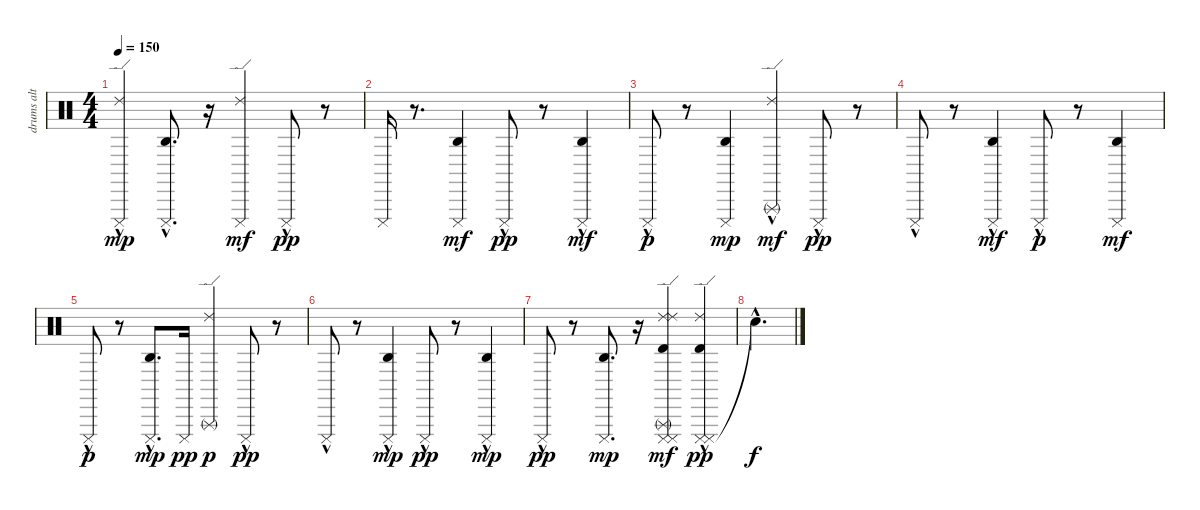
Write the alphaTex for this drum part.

\track ("drums alt" "drums alt") {instrument percussion}
\staff {score}
\articulation defaults
\ts (4 4)
\tempo 150
\clef neutral
\ks c
("Cuica (mute)"{hac} "Ride (edge) 2").4{dy mp} ("Cuica (mute)"{hac} "Agogo high (hit)").8{d} r.16 ("Cuica (mute)" "Ride (edge) 2").4{dy mf} "Cuica (mute)"{hac}.8{dy pp} r.8 |
"Cuica (mute)".16 r.8{d} ("Cuica (mute)" "Agogo high (hit)").4{dy mf} "Cuica (mute)"{hac}.8{dy pp} r.8 ("Cuica (mute)"{hac} "Agogo high (hit)").4{dy mf} |
"Cuica (mute)"{hac}.8{dy p} r.8 ("Cuica (mute)" "Agogo high (hit)").4{dy mp} ("Triangle (rnute)"{hac} "Ride (edge) 2").4{dy mf} "Cuica (mute)"{hac}.8{dy pp} r.8 |
"Cuica (mute)"{hac}.8 r.8 ("Cuica (mute)"{hac} "Agogo high (hit)").4{dy mf} "Cuica (mute)"{hac}.8{dy p} r.8 ("Cuica (mute)" "Agogo high (hit)").4{dy mf} |
"Cuica (mute)"{hac}.8{dy p} r.8 ("Cuica (mute)" "Agogo high (hit)"{hac}).8{d dy mp} "Cuica (mute)".16{dy pp} ("Ride (edge) 2" "Triangle (rnute)").4{dy p} "Cuica (mute)"{hac}.8{dy pp} r.8 |
"Cuica (mute)"{hac}.8 r.8 ("Cuica (mute)"{hac} "Agogo high (hit)").4{dy mp} "Cuica (mute)"{hac}.8{dy pp} r.8 ("Cuica (mute)"{hac} "Agogo high (hit)").4{dy mp} |
"Cuica (mute)"{hac}.8{dy pp} r.8 ("Cuica (mute)" "Agogo high (hit)").8{d dy mp} r.16 ("Triangle (rnute)" "Cuica (mute)" "Timbale high (hit)" "Cuica (mute)" "Ride (edge) 2" "Ride (edge) 2").4{dy mf} ("Cuica (mute)"{hac} "Cuica (mute)"{hac} "Ride (edge) 2" "Timbale high (hit)").4{dy pp} |
"Snare (hit)"{hac t}.4{d dy f}
